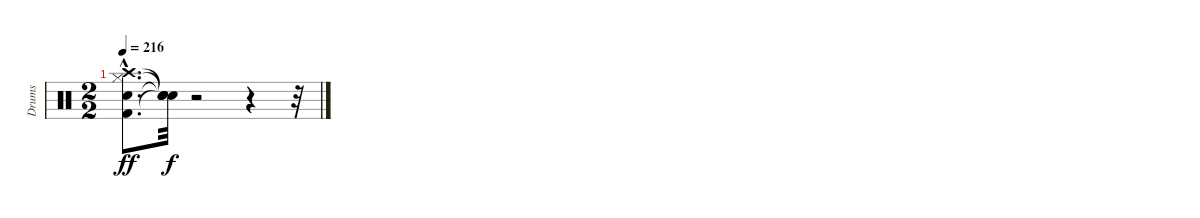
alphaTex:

\track ("Drums" "Drums") {instrument percussion}
\staff {score}
\articulation defaults
\ts (2 2)
\tempo 216
\clef neutral
\ks c
("Kick (hit) 2"{hac} "Snare (hit) 2"{hac} "Hi-Hat (closed)"{hac} "Crash high (hit)"{hac}).8{d dy ff} ("Snare (hit)"{t} "Snare (hit)"{t} "Snare (hit)"{t} "Snare (hit)"{t}).32{dy f} r.2 r.4 r.32
